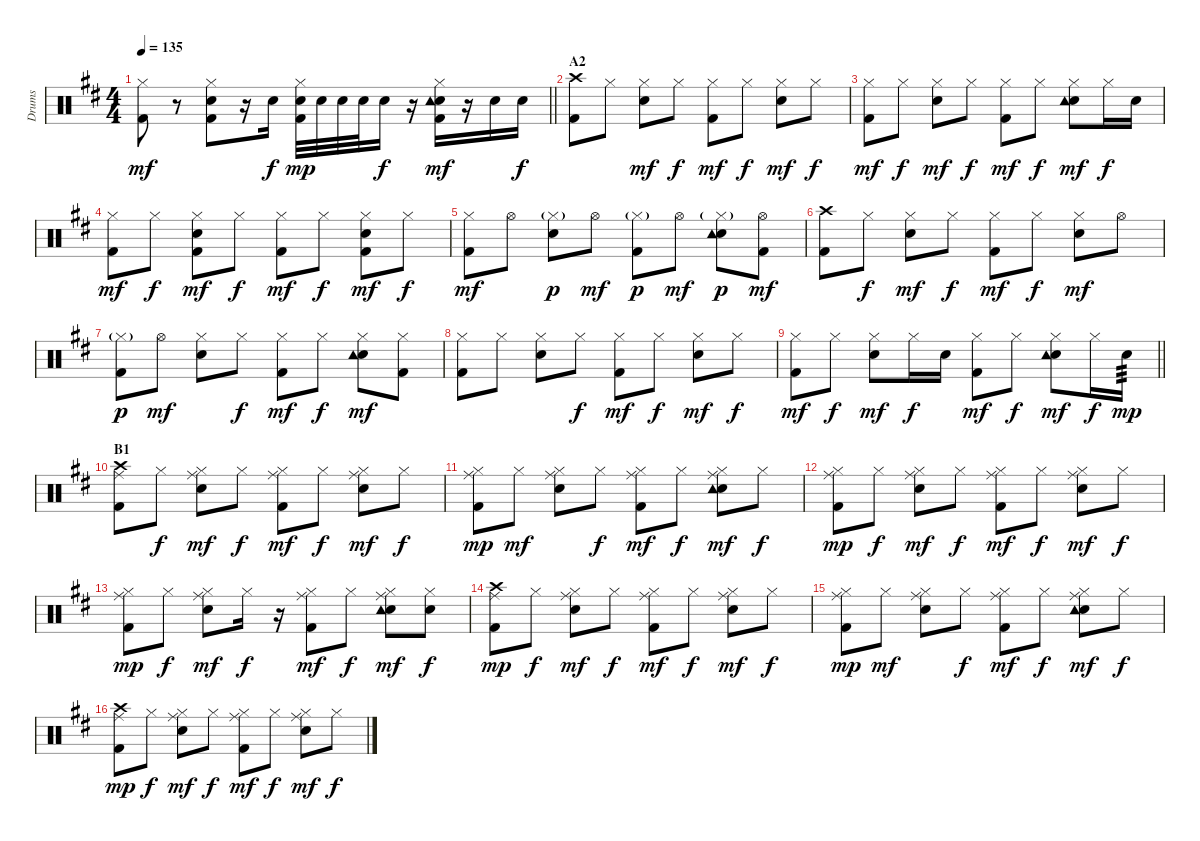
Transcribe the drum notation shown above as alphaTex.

\track ("Drums" "Drums") {instrument percussion}
\staff {score}
\articulation defaults
\ts (4 4)
\tempo 135
\clef neutral
\barLineRight lightlight
\ks d
("Hi-Hat (closed)" "Kick (hit) 2").8{dy mf} r.8 ("Hi-Hat (closed)" "Electric Snare (hit)" "Kick (hit) 2").8 r.16 "Electric Snare (hit)".16{dy f} ("Hi-Hat (closed)" "Electric Snare (hit)" "Kick (hit) 2").32{dy mp} "Electric Snare (hit)".32 "Electric Snare (hit)".32 "Electric Snare (hit)".32 "Electric Snare (hit)".16{dy f} r.16 ("Hi-Hat (closed)" "Electric Snare (hit)" "Kick (hit) 2" "Tambourine (hit)").16{dy mf} r.16 "Electric Snare (hit)".16 "Electric Snare (hit)".16{dy f} |
\section ("" "A2")
("Crash high (hit)" "Kick (hit) 2").8 "Hi-Hat (closed)".8 ("Hi-Hat (closed)" "Electric Snare (hit)").8{dy mf} "Hi-Hat (closed)".8{dy f} ("Hi-Hat (closed)" "Kick (hit) 2").8{dy mf} "Hi-Hat (closed)".8{dy f} ("Hi-Hat (closed)" "Electric Snare (hit)").8{dy mf} "Hi-Hat (closed)".8{dy f} |
("Hi-Hat (closed)" "Kick (hit) 2").8{dy mf} "Hi-Hat (closed)".8{dy f} ("Hi-Hat (closed)" "Electric Snare (hit)").8{dy mf} "Hi-Hat (closed)".8{dy f} ("Hi-Hat (closed)" "Kick (hit) 2").8{dy mf} "Hi-Hat (closed)".8{dy f} ("Hi-Hat (closed)" "Electric Snare (hit)" "Tambourine (hit)").8{dy mf} "Hi-Hat (closed)".16{dy f} "Electric Snare (hit)".16 |
("Hi-Hat (closed)" "Kick (hit) 2").8{dy mf} "Hi-Hat (closed)".8{dy f} ("Hi-Hat (closed)" "Electric Snare (hit)" "Kick (hit) 2").8{dy mf} "Hi-Hat (closed)".8{dy f} ("Hi-Hat (closed)" "Kick (hit) 2").8{dy mf} "Hi-Hat (closed)".8{dy f} ("Hi-Hat (closed)" "Electric Snare (hit)" "Kick (hit) 2").8{dy mf} "Hi-Hat (closed)".8{dy f} |
("Hi-Hat (closed)" "Kick (hit) 2").8{dy mf} "Hi-Hat (open)".8 ("Hi-Hat (closed)"{g} "Electric Snare (hit)").8{dy p} "Hi-Hat (open)".8{dy mf} ("Hi-Hat (closed)"{g} "Kick (hit) 2").8{dy p} "Hi-Hat (open)".8{dy mf} ("Hi-Hat (closed)"{g} "Electric Snare (hit)" "Tambourine (hit)").8{dy p} ("Hi-Hat (open)" "Kick (hit) 2").8{dy mf} |
("Crash high (hit)" "Kick (hit) 2").8 "Hi-Hat (closed)".8{dy f} ("Hi-Hat (closed)" "Electric Snare (hit)").8{dy mf} "Hi-Hat (closed)".8{dy f} ("Hi-Hat (closed)" "Kick (hit) 2").8{dy mf} "Hi-Hat (closed)".8{dy f} ("Hi-Hat (closed)" "Electric Snare (hit)").8{dy mf} "Hi-Hat (open)".8 |
("Hi-Hat (closed)"{g} "Kick (hit) 2").8{dy p} "Hi-Hat (open)".8{dy mf} ("Hi-Hat (closed)" "Electric Snare (hit)").8 "Hi-Hat (closed)".8{dy f} ("Hi-Hat (closed)" "Kick (hit) 2").8{dy mf} "Hi-Hat (closed)".8{dy f} ("Hi-Hat (closed)" "Electric Snare (hit)" "Tambourine (hit)").8{dy mf} ("Hi-Hat (closed)" "Kick (hit) 2").8 |
("Hi-Hat (closed)" "Kick (hit) 2").8 "Hi-Hat (closed)".8 ("Hi-Hat (closed)" "Electric Snare (hit)").8 "Hi-Hat (closed)".8{dy f} ("Hi-Hat (closed)" "Kick (hit) 2").8{dy mf} "Hi-Hat (closed)".8{dy f} ("Hi-Hat (closed)" "Electric Snare (hit)").8{dy mf} "Hi-Hat (closed)".8{dy f} |
\barLineRight lightlight
("Hi-Hat (closed)" "Kick (hit) 2").8{dy mf} "Hi-Hat (closed)".8{dy f} ("Hi-Hat (closed)" "Electric Snare (hit)").8{dy mf} "Hi-Hat (closed)".16{dy f} "Electric Snare (hit)".16 ("Hi-Hat (closed)" "Kick (hit) 2").8{dy mf} "Hi-Hat (closed)".8{dy f} ("Hi-Hat (closed)" "Electric Snare (hit)" "Tambourine (hit)").8{dy mf} "Hi-Hat (closed)".16{dy f} "Electric Snare (hit)".16{tp 3 dy mp} |
\section ("" "B1")
("Ride (middle)" "Crash high (hit)" "Kick (hit) 2").8 "Hi-Hat (closed)".8{dy f} ("Ride (middle)" "Hi-Hat (closed)" "Electric Snare (hit)").8{dy mf} "Hi-Hat (closed)".8{dy f} ("Ride (middle)" "Hi-Hat (closed)" "Kick (hit) 2").8{dy mf} "Hi-Hat (closed)".8{dy f} ("Ride (middle)" "Hi-Hat (closed)" "Electric Snare (hit)").8{dy mf} "Hi-Hat (closed)".8{dy f} |
("Ride (middle)" "Hi-Hat (closed)" "Kick (hit) 2").8{dy mp} "Hi-Hat (closed)".8{dy mf} ("Ride (middle)" "Hi-Hat (closed)" "Electric Snare (hit)").8 "Hi-Hat (closed)".8{dy f} ("Ride (middle)" "Hi-Hat (closed)" "Kick (hit) 2").8{dy mf} "Hi-Hat (closed)".8{dy f} ("Ride (middle)" "Hi-Hat (closed)" "Electric Snare (hit)" "Tambourine (hit)").8{dy mf} "Hi-Hat (closed)".8{dy f} |
("Ride (middle)" "Hi-Hat (closed)" "Kick (hit) 2").8{dy mp} "Hi-Hat (closed)".8{dy f} ("Ride (middle)" "Hi-Hat (closed)" "Electric Snare (hit)").8{dy mf} "Hi-Hat (closed)".8{dy f} ("Ride (middle)" "Hi-Hat (closed)" "Kick (hit) 2").8{dy mf} "Hi-Hat (closed)".8{dy f} ("Ride (middle)" "Hi-Hat (closed)" "Electric Snare (hit)").8{dy mf} "Hi-Hat (closed)".8{dy f} |
("Ride (middle)" "Hi-Hat (closed)" "Kick (hit) 2").8{dy mp} "Hi-Hat (closed)".8{dy f} ("Ride (middle)" "Hi-Hat (closed)" "Electric Snare (hit)").8{dy mf} "Hi-Hat (closed)".16{dy f} r.16 ("Ride (middle)" "Hi-Hat (closed)" "Kick (hit) 2").8{dy mf} "Hi-Hat (closed)".8{dy f} ("Ride (middle)" "Hi-Hat (closed)" "Electric Snare (hit)" "Tambourine (hit)").8{dy mf} ("Hi-Hat (closed)" "Electric Snare (hit)").8{dy f} |
("Ride (middle)" "Crash high (hit)" "Kick (hit) 2").8{dy mp} "Hi-Hat (closed)".8{dy f} ("Ride (middle)" "Hi-Hat (closed)" "Electric Snare (hit)").8{dy mf} "Hi-Hat (closed)".8{dy f} ("Ride (middle)" "Hi-Hat (closed)" "Kick (hit) 2").8{dy mf} "Hi-Hat (closed)".8{dy f} ("Ride (middle)" "Hi-Hat (closed)" "Electric Snare (hit)").8{dy mf} "Hi-Hat (closed)".8{dy f} |
("Ride (middle)" "Hi-Hat (closed)" "Kick (hit) 2").8{dy mp} "Hi-Hat (closed)".8{dy mf} ("Ride (middle)" "Hi-Hat (closed)" "Electric Snare (hit)").8 "Hi-Hat (closed)".8{dy f} ("Ride (middle)" "Hi-Hat (closed)" "Kick (hit) 2").8{dy mf} "Hi-Hat (closed)".8{dy f} ("Ride (middle)" "Hi-Hat (closed)" "Electric Snare (hit)" "Tambourine (hit)").8{dy mf} "Hi-Hat (closed)".8{dy f} |
("Ride (middle)" "Crash high (hit)" "Kick (hit) 2").8{dy mp} "Hi-Hat (closed)".8{dy f} ("Ride (middle)" "Hi-Hat (closed)" "Electric Snare (hit)").8{dy mf} "Hi-Hat (closed)".8{dy f} ("Ride (middle)" "Hi-Hat (closed)" "Kick (hit) 2").8{dy mf} "Hi-Hat (closed)".8{dy f} ("Ride (middle)" "Hi-Hat (closed)" "Electric Snare (hit)").8{dy mf} "Hi-Hat (closed)".8{dy f}
